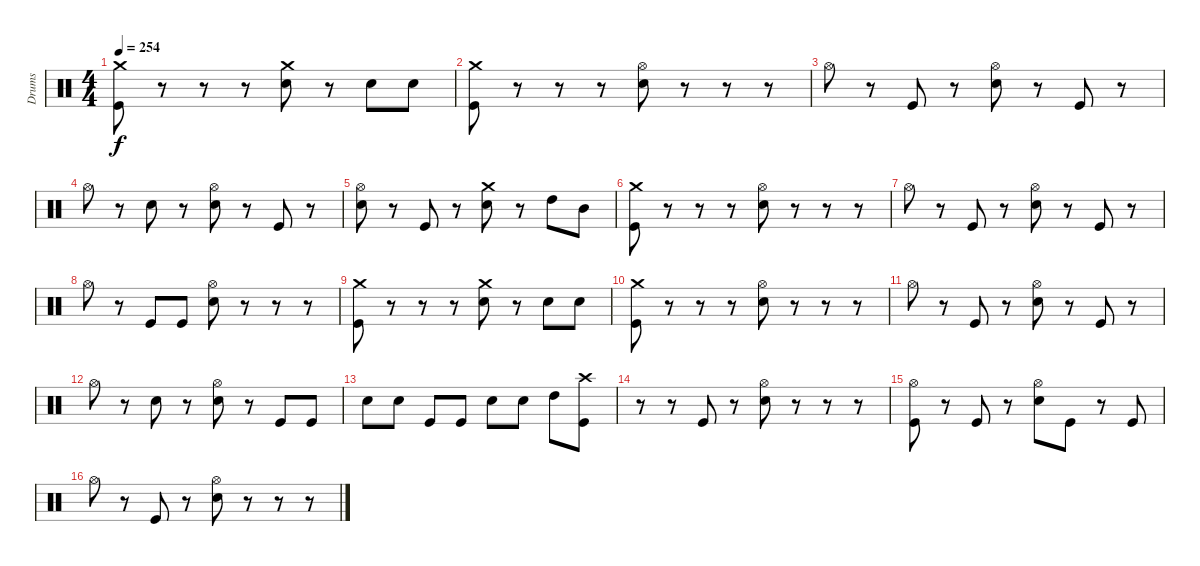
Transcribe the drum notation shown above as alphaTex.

\track ("Drums" "Drums") {instrument percussion}
\staff {score}
\articulation defaults
\ts (4 4)
\tempo 254
\clef neutral
\ks c
("Crash medium (hit)" "Kick (hit)").8{dy f} r.8 r.8 r.8 ("Crash medium (hit)" "Electric Snare (hit)").8 r.8 "Electric Snare (hit)".8 "Electric Snare (hit)".8 |
("Crash medium (hit)" "Kick (hit)").8 r.8 r.8 r.8 ("Hi-Hat (open)" "Electric Snare (hit)").8 r.8 r.8 r.8 |
"Hi-Hat (open)".8 r.8 "Kick (hit)".8 r.8 ("Hi-Hat (open)" "Electric Snare (hit)").8 r.8 "Kick (hit)".8 r.8 |
"Hi-Hat (open)".8 r.8 "Electric Snare (hit)".8 r.8 ("Hi-Hat (open)" "Electric Snare (hit)").8 r.8 "Kick (hit)".8 r.8 |
("Hi-Hat (open)" "Electric Snare (hit)").8 r.8 "Kick (hit)".8 r.8 ("Crash medium (hit)" "Electric Snare (hit)").8 r.8 "High Tom (hit)".8 "Mid Tom (hit)".8 |
("Crash medium (hit)" "Kick (hit)").8 r.8 r.8 r.8 ("Hi-Hat (open)" "Electric Snare (hit)").8 r.8 r.8 r.8 |
"Hi-Hat (open)".8 r.8 "Kick (hit)".8 r.8 ("Hi-Hat (open)" "Electric Snare (hit)").8 r.8 "Kick (hit)".8 r.8 |
"Hi-Hat (open)".8 r.8 "Kick (hit)".8 "Kick (hit)".8 ("Hi-Hat (open)" "Electric Snare (hit)").8 r.8 r.8 r.8 |
("Crash medium (hit)" "Kick (hit)").8 r.8 r.8 r.8 ("Crash medium (hit)" "Electric Snare (hit)").8 r.8 "Electric Snare (hit)".8 "Electric Snare (hit)".8 |
("Crash medium (hit)" "Kick (hit)").8 r.8 r.8 r.8 ("Hi-Hat (open)" "Electric Snare (hit)").8 r.8 r.8 r.8 |
"Hi-Hat (open)".8 r.8 "Kick (hit)".8 r.8 ("Hi-Hat (open)" "Electric Snare (hit)").8 r.8 "Kick (hit)".8 r.8 |
"Hi-Hat (open)".8 r.8 "Electric Snare (hit)".8 r.8 ("Hi-Hat (open)" "Electric Snare (hit)").8 r.8 "Kick (hit)".8 "Kick (hit)".8 |
"Electric Snare (hit)".8 "Electric Snare (hit)".8 "Kick (hit)".8 "Kick (hit)".8 "Electric Snare (hit)".8 "Electric Snare (hit)".8 "High Tom (hit)".8 ("Crash high (hit)" "Kick (hit)").8 |
r.8 r.8 "Kick (hit)".8 r.8 ("Hi-Hat (open)" "Electric Snare (hit)").8 r.8 r.8 r.8 |
("Hi-Hat (open)" "Kick (hit)").8 r.8 "Kick (hit)".8 r.8 ("Hi-Hat (open)" "Electric Snare (hit)").8 "Kick (hit)".8 r.8 "Kick (hit)".8 |
"Hi-Hat (open)".8 r.8 "Kick (hit)".8 r.8 ("Hi-Hat (open)" "Electric Snare (hit)").8 r.8 r.8 r.8
